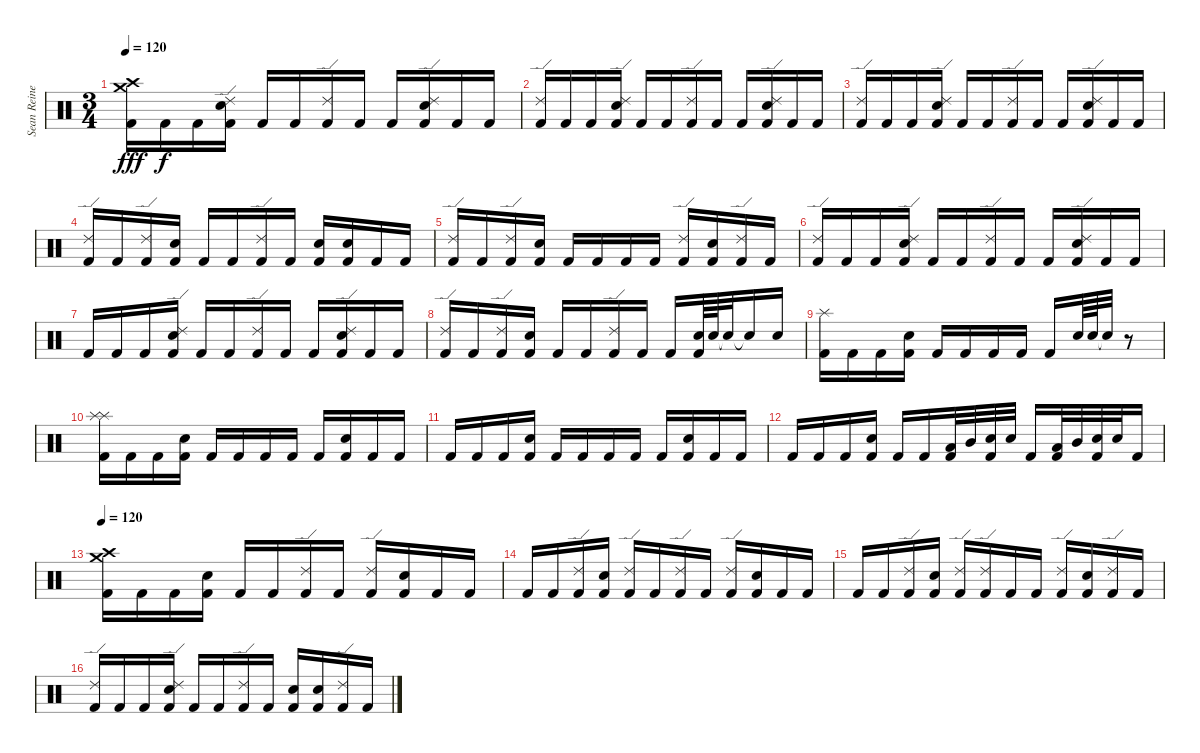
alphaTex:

\track ("Sean Reinert" "Sean Reine") {instrument percussion}
\staff {score}
\articulation defaults
\ts (3 4)
\tempo 120
\clef neutral
\ks c
("Crash medium (hit)" "Crash high (hit)" "Kick (hit) 2").16{dy fff} "Kick (hit) 2".16{dy f} "Kick (hit) 2".16 ("Ride (edge) 2" "Snare (hit) 2" "Kick (hit) 2").16 "Kick (hit) 2".16 "Kick (hit) 2".16 ("Ride (edge) 2" "Kick (hit) 2").16 "Kick (hit) 2".16 "Kick (hit) 2".16 ("Ride (edge) 2" "Snare (hit) 2" "Kick (hit) 2").16 "Kick (hit) 2".16 "Kick (hit) 2".16 |
("Ride (edge) 2" "Kick (hit) 2").16 "Kick (hit) 2".16 "Kick (hit) 2".16 ("Ride (edge) 2" "Snare (hit) 2" "Kick (hit) 2").16 "Kick (hit) 2".16 "Kick (hit) 2".16 ("Ride (edge) 2" "Kick (hit) 2").16 "Kick (hit) 2".16 "Kick (hit) 2".16 ("Ride (edge) 2" "Snare (hit) 2" "Kick (hit) 2").16 "Kick (hit) 2".16 "Kick (hit) 2".16 |
("Ride (edge) 2" "Kick (hit) 2").16 "Kick (hit) 2".16 "Kick (hit) 2".16 ("Ride (edge) 2" "Snare (hit) 2" "Kick (hit) 2").16 "Kick (hit) 2".16 "Kick (hit) 2".16 ("Ride (edge) 2" "Kick (hit) 2").16 "Kick (hit) 2".16 "Kick (hit) 2".16 ("Ride (edge) 2" "Snare (hit) 2" "Kick (hit) 2").16 "Kick (hit) 2".16 "Kick (hit) 2".16 |
("Ride (edge) 2" "Kick (hit) 2").16 "Kick (hit) 2".16 ("Ride (edge) 2" "Kick (hit) 2").16 ("Snare (hit) 2" "Kick (hit) 2").16 "Kick (hit) 2".16 "Kick (hit) 2".16 ("Ride (edge) 2" "Kick (hit) 2").16 "Kick (hit) 2".16 ("Snare (hit) 2" "Kick (hit) 2").16 ("Snare (hit) 2" "Kick (hit) 2").16 "Kick (hit) 2".16 "Kick (hit) 2".16 |
("Ride (edge) 2" "Kick (hit) 2").16 "Kick (hit) 2".16 ("Ride (edge) 2" "Kick (hit) 2").16 ("Snare (hit) 2" "Kick (hit) 2").16 "Kick (hit) 2".16 "Kick (hit) 2".16 "Kick (hit) 2".16 "Kick (hit) 2".16 ("Ride (edge) 2" "Kick (hit) 2").16 ("Snare (hit) 2" "Kick (hit) 2").16 ("Ride (edge) 2" "Kick (hit) 2").16 "Kick (hit) 2".16 |
("Ride (edge) 2" "Kick (hit) 2").16 "Kick (hit) 2".16 "Kick (hit) 2".16 ("Ride (edge) 2" "Snare (hit) 2" "Kick (hit) 2").16 "Kick (hit) 2".16 "Kick (hit) 2".16 ("Ride (edge) 2" "Kick (hit) 2").16 "Kick (hit) 2".16 "Kick (hit) 2".16 ("Ride (edge) 2" "Snare (hit) 2" "Kick (hit) 2").16 "Kick (hit) 2".16 "Kick (hit) 2".16 |
"Kick (hit) 2".16 "Kick (hit) 2".16 "Kick (hit) 2".16 ("Ride (edge) 2" "Snare (hit) 2" "Kick (hit) 2").16 "Kick (hit) 2".16 "Kick (hit) 2".16 ("Ride (edge) 2" "Kick (hit) 2").16 "Kick (hit) 2".16 "Kick (hit) 2".16 ("Ride (edge) 2" "Snare (hit) 2" "Kick (hit) 2").16 "Kick (hit) 2".16 "Kick (hit) 2".16 |
("Ride (edge) 2" "Kick (hit) 2").16 "Kick (hit) 2".16 ("Ride (edge) 2" "Kick (hit) 2").16 ("Snare (hit) 2" "Kick (hit) 2").16 "Kick (hit) 2".16 "Kick (hit) 2".16 ("Ride (edge) 2" "Kick (hit) 2").16 "Kick (hit) 2".16 "Kick (hit) 2".16 ("Snare (hit) 2" "Kick (hit) 2").64 "Snare (hit) 2".64 "Snare (hit)"{t}.32 "Snare (hit)"{t}.16 "Snare (hit) 2".16 |
("Splash (hit)" "Kick (hit) 2").16 "Kick (hit) 2".16 "Kick (hit) 2".16 ("Snare (hit) 2" "Kick (hit) 2").16 "Kick (hit) 2".16 "Kick (hit) 2".16 "Kick (hit) 2".16 "Kick (hit) 2".16 "Kick (hit) 2".16 "Snare (hit) 2".64 "Snare (hit) 2".64 "Snare (hit)"{t}.32 r.8 |
("Splash (hit)" "Splash (hit)" "Kick (hit) 2").16 "Kick (hit) 2".16 "Kick (hit) 2".16 ("Snare (hit) 2" "Kick (hit) 2").16 "Kick (hit) 2".16 "Kick (hit) 2".16 "Kick (hit) 2".16 "Kick (hit) 2".16 "Kick (hit) 2".16 ("Snare (hit) 2" "Kick (hit) 2").16 "Kick (hit) 2".16 "Kick (hit) 2".16 |
"Kick (hit) 2".16 "Kick (hit) 2".16 "Kick (hit) 2".16 ("Snare (hit) 2" "Kick (hit) 2").16 "Kick (hit) 2".16 "Kick (hit) 2".16 "Kick (hit) 2".16 "Kick (hit) 2".16 "Kick (hit) 2".16 ("Snare (hit) 2" "Kick (hit) 2").16 "Kick (hit) 2".16 "Kick (hit) 2".16 |
"Kick (hit) 2".16 "Kick (hit) 2".16 "Kick (hit) 2".16 ("Snare (hit) 2" "Kick (hit) 2").16 "Kick (hit) 2".16 "Kick (hit) 2".16 ("Low Tom (hit)" "Kick (hit) 2").32 "Mid Tom (hit)".32 ("Snare (hit) 2" "Kick (hit) 2").32 "Snare (hit) 2".32 "Kick (hit) 2".16 ("Low Tom (hit)" "Kick (hit) 2").32 "Mid Tom (hit)".32 ("Snare (hit) 2" "Kick (hit) 2").32 "Snare (hit) 2".32 "Kick (hit) 2".16 |
\tempo 120
("Crash medium (hit)" "Crash high (hit)" "Kick (hit) 2").16 "Kick (hit) 2".16 "Kick (hit) 2".16 ("Snare (hit) 2" "Kick (hit) 2").16 "Kick (hit) 2".16 "Kick (hit) 2".16 ("Ride (edge) 2" "Kick (hit) 2").16 "Kick (hit) 2".16 ("Ride (edge) 2" "Kick (hit) 2").16 ("Snare (hit) 2" "Kick (hit) 2").16 "Kick (hit) 2".16 "Kick (hit) 2".16 |
"Kick (hit) 2".16 "Kick (hit) 2".16 ("Ride (edge) 2" "Kick (hit) 2").16 ("Snare (hit) 2" "Kick (hit) 2").16 ("Ride (edge) 2" "Kick (hit) 2").16 "Kick (hit) 2".16 ("Ride (edge) 2" "Kick (hit) 2").16 "Kick (hit) 2".16 ("Ride (edge) 2" "Kick (hit) 2").16 ("Snare (hit) 2" "Kick (hit) 2").16 "Kick (hit) 2".16 "Kick (hit) 2".16 |
"Kick (hit) 2".16 "Kick (hit) 2".16 ("Ride (edge) 2" "Kick (hit) 2").16 ("Snare (hit) 2" "Kick (hit) 2").16 ("Ride (edge) 2" "Kick (hit) 2").16 ("Ride (edge) 2" "Kick (hit) 2").16 "Kick (hit) 2".16 "Kick (hit) 2".16 ("Ride (edge) 2" "Kick (hit) 2").16 ("Snare (hit) 2" "Kick (hit) 2").16 ("Ride (edge) 2" "Kick (hit) 2").16 "Kick (hit) 2".16 |
("Ride (edge) 2" "Kick (hit) 2").16 "Kick (hit) 2".16 "Kick (hit) 2".16 ("Ride (edge) 2" "Snare (hit) 2" "Kick (hit) 2").16 "Kick (hit) 2".16 "Kick (hit) 2".16 ("Ride (edge) 2" "Kick (hit) 2").16 "Kick (hit) 2".16 ("Snare (hit) 2" "Kick (hit) 2").16 ("Snare (hit) 2" "Kick (hit) 2").16 ("Ride (edge) 2" "Kick (hit) 2").16 "Kick (hit) 2".16
